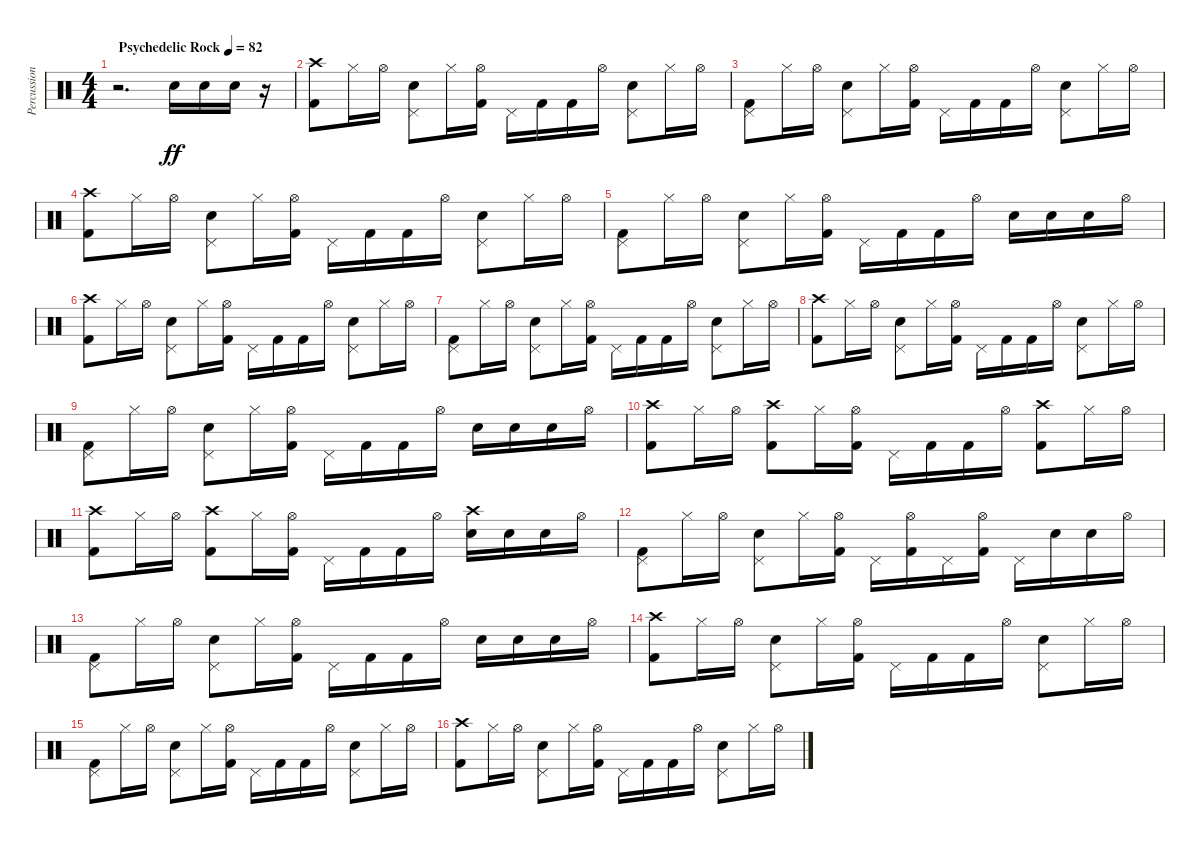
\track ("Percussion: Nick Mason" "Percussion") {instrument percussion}
\staff {score}
\articulation defaults
\ts (4 4)
\tempo (82 "Psychedelic Rock")
\clef neutral
\ks c
r.2{d dy ff} "Electric Snare (hit)".16 "Electric Snare (hit)".16 "Electric Snare (hit)".16 r.16 |
("Crash high (hit)" "Kick (hit) 2").8 "Hi-Hat (closed)".16 "Hi-Hat (open)".16 ("Pedal Hi-Hat (hit)" "Snare (hit) 2").8 "Hi-Hat (closed)".16 ("Hi-Hat (open)" "Kick (hit) 2").16 "Pedal Hi-Hat (hit)".16 "Kick (hit) 2".16 "Kick (hit) 2".16 "Hi-Hat (open)".16 ("Pedal Hi-Hat (hit)" "Snare (hit) 2").8 "Hi-Hat (closed)".16 "Hi-Hat (open)".16 |
("Pedal Hi-Hat (hit)" "Kick (hit) 2").8 "Hi-Hat (closed)".16 "Hi-Hat (open)".16 ("Pedal Hi-Hat (hit)" "Snare (hit) 2").8 "Hi-Hat (closed)".16 ("Hi-Hat (open)" "Kick (hit) 2").16 "Pedal Hi-Hat (hit)".16 "Kick (hit) 2".16 "Kick (hit) 2".16 "Hi-Hat (open)".16 ("Pedal Hi-Hat (hit)" "Snare (hit) 2").8 "Hi-Hat (closed)".16 "Hi-Hat (open)".16 |
("Crash high (hit)" "Kick (hit) 2").8 "Hi-Hat (closed)".16 "Hi-Hat (open)".16 ("Pedal Hi-Hat (hit)" "Snare (hit) 2").8 "Hi-Hat (closed)".16 ("Hi-Hat (open)" "Kick (hit) 2").16 "Pedal Hi-Hat (hit)".16 "Kick (hit) 2".16 "Kick (hit) 2".16 "Hi-Hat (open)".16 ("Pedal Hi-Hat (hit)" "Snare (hit) 2").8 "Hi-Hat (closed)".16 "Hi-Hat (open)".16 |
("Pedal Hi-Hat (hit)" "Kick (hit) 2").8 "Hi-Hat (closed)".16 "Hi-Hat (open)".16 ("Pedal Hi-Hat (hit)" "Snare (hit) 2").8 "Hi-Hat (closed)".16 ("Hi-Hat (open)" "Kick (hit) 2").16 "Pedal Hi-Hat (hit)".16 "Kick (hit) 2".16 "Kick (hit) 2".16 "Hi-Hat (open)".16 "Snare (hit) 2".16 "Electric Snare (hit)".16 "Electric Snare (hit)".16 "Hi-Hat (open)".16 |
("Crash high (hit)" "Kick (hit) 2").8 "Hi-Hat (closed)".16 "Hi-Hat (open)".16 ("Pedal Hi-Hat (hit)" "Snare (hit) 2").8 "Hi-Hat (closed)".16 ("Hi-Hat (open)" "Kick (hit) 2").16 "Pedal Hi-Hat (hit)".16 "Kick (hit) 2".16 "Kick (hit) 2".16 "Hi-Hat (open)".16 ("Pedal Hi-Hat (hit)" "Snare (hit) 2").8 "Hi-Hat (closed)".16 "Hi-Hat (open)".16 |
("Pedal Hi-Hat (hit)" "Kick (hit) 2").8 "Hi-Hat (closed)".16 "Hi-Hat (open)".16 ("Pedal Hi-Hat (hit)" "Snare (hit) 2").8 "Hi-Hat (closed)".16 ("Hi-Hat (open)" "Kick (hit) 2").16 "Pedal Hi-Hat (hit)".16 "Kick (hit) 2".16 "Kick (hit) 2".16 "Hi-Hat (open)".16 ("Pedal Hi-Hat (hit)" "Snare (hit) 2").8 "Hi-Hat (closed)".16 "Hi-Hat (open)".16 |
("Crash high (hit)" "Kick (hit) 2").8 "Hi-Hat (closed)".16 "Hi-Hat (open)".16 ("Pedal Hi-Hat (hit)" "Snare (hit) 2").8 "Hi-Hat (closed)".16 ("Hi-Hat (open)" "Kick (hit) 2").16 "Pedal Hi-Hat (hit)".16 "Kick (hit) 2".16 "Kick (hit) 2".16 "Hi-Hat (open)".16 ("Pedal Hi-Hat (hit)" "Snare (hit) 2").8 "Hi-Hat (closed)".16 "Hi-Hat (open)".16 |
("Pedal Hi-Hat (hit)" "Kick (hit) 2").8 "Hi-Hat (closed)".16 "Hi-Hat (open)".16 ("Pedal Hi-Hat (hit)" "Snare (hit) 2").8 "Hi-Hat (closed)".16 ("Hi-Hat (open)" "Kick (hit) 2").16 "Pedal Hi-Hat (hit)".16 "Kick (hit) 2".16 "Kick (hit) 2".16 "Hi-Hat (open)".16 "Snare (hit) 2".16 "Electric Snare (hit)".16 "Electric Snare (hit)".16 "Hi-Hat (open)".16 |
("Crash high (hit)" "Kick (hit) 2").8 "Hi-Hat (closed)".16 "Hi-Hat (open)".16 ("Crash high (hit)" "Kick (hit) 2").8 "Hi-Hat (closed)".16 ("Hi-Hat (open)" "Kick (hit) 2").16 "Pedal Hi-Hat (hit)".16 "Kick (hit) 2".16 "Kick (hit) 2".16 "Hi-Hat (open)".16 ("Crash high (hit)" "Kick (hit) 2").8 "Hi-Hat (closed)".16 "Hi-Hat (open)".16 |
("Crash high (hit)" "Kick (hit) 2").8 "Hi-Hat (closed)".16 "Hi-Hat (open)".16 ("Crash high (hit)" "Kick (hit) 2").8 "Hi-Hat (closed)".16 ("Hi-Hat (open)" "Kick (hit) 2").16 "Pedal Hi-Hat (hit)".16 "Kick (hit) 2".16 "Kick (hit) 2".16 "Hi-Hat (open)".16 ("Crash high (hit)" "Snare (hit) 2").16 "Electric Snare (hit)".16 "Electric Snare (hit)".16 "Hi-Hat (open)".16 |
("Pedal Hi-Hat (hit)" "Kick (hit) 2").8 "Hi-Hat (closed)".16 "Hi-Hat (open)".16 ("Pedal Hi-Hat (hit)" "Snare (hit) 2").8 "Hi-Hat (closed)".16 ("Hi-Hat (open)" "Kick (hit) 2").16 "Pedal Hi-Hat (hit)".16 ("Hi-Hat (open)" "Kick (hit) 2").16 "Pedal Hi-Hat (hit)".16 ("Hi-Hat (open)" "Kick (hit) 2").16 "Pedal Hi-Hat (hit)".16 "Electric Snare (hit)".16 "Electric Snare (hit)".16 "Hi-Hat (open)".16 |
("Pedal Hi-Hat (hit)" "Kick (hit) 2").8 "Hi-Hat (closed)".16 "Hi-Hat (open)".16 ("Pedal Hi-Hat (hit)" "Snare (hit) 2").8 "Hi-Hat (closed)".16 ("Hi-Hat (open)" "Kick (hit) 2").16 "Pedal Hi-Hat (hit)".16 "Kick (hit) 2".16 "Kick (hit) 2".16 "Hi-Hat (open)".16 "Snare (hit) 2".16 "Electric Snare (hit)".16 "Electric Snare (hit)".16 "Hi-Hat (open)".16 |
("Crash high (hit)" "Kick (hit) 2").8 "Hi-Hat (closed)".16 "Hi-Hat (open)".16 ("Pedal Hi-Hat (hit)" "Snare (hit) 2").8 "Hi-Hat (closed)".16 ("Hi-Hat (open)" "Kick (hit) 2").16 "Pedal Hi-Hat (hit)".16 "Kick (hit) 2".16 "Kick (hit) 2".16 "Hi-Hat (open)".16 ("Pedal Hi-Hat (hit)" "Snare (hit) 2").8 "Hi-Hat (closed)".16 "Hi-Hat (open)".16 |
("Pedal Hi-Hat (hit)" "Kick (hit) 2").8 "Hi-Hat (closed)".16 "Hi-Hat (open)".16 ("Pedal Hi-Hat (hit)" "Snare (hit) 2").8 "Hi-Hat (closed)".16 ("Hi-Hat (open)" "Kick (hit) 2").16 "Pedal Hi-Hat (hit)".16 "Kick (hit) 2".16 "Kick (hit) 2".16 "Hi-Hat (open)".16 ("Pedal Hi-Hat (hit)" "Snare (hit) 2").8 "Hi-Hat (closed)".16 "Hi-Hat (open)".16 |
("Crash high (hit)" "Kick (hit) 2").8 "Hi-Hat (closed)".16 "Hi-Hat (open)".16 ("Pedal Hi-Hat (hit)" "Snare (hit) 2").8 "Hi-Hat (closed)".16 ("Hi-Hat (open)" "Kick (hit) 2").16 "Pedal Hi-Hat (hit)".16 "Kick (hit) 2".16 "Kick (hit) 2".16 "Hi-Hat (open)".16 ("Pedal Hi-Hat (hit)" "Snare (hit) 2").8 "Hi-Hat (closed)".16 "Hi-Hat (open)".16
